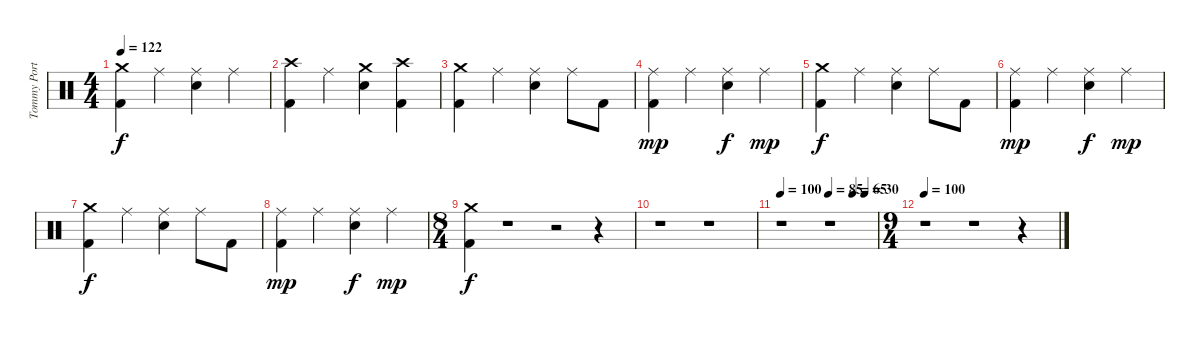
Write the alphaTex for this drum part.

\track ("Tommy Portino" "Tommy Port") {instrument percussion}
\staff {score}
\articulation defaults
\ts (4 4)
\tempo 122
\clef neutral
\ks c
("Crash medium (hit)" "Kick (hit) 2").4{dy f} "Ride (middle)".4 ("Ride (middle)" "Snare (hit) 2").4 "Ride (middle)".4 |
("Crash high (hit)" "Kick (hit) 2").4 "Ride (middle)".4 ("Crash medium (hit)" "Snare (hit) 2").4 ("Crash high (hit)" "Kick (hit) 2").4 |
("Crash medium (hit)" "Kick (hit) 2").4 "Ride (middle)".4 ("Ride (middle)" "Snare (hit) 2").4 "Ride (middle)".8 "Kick (hit) 2".8 |
("Ride (middle)" "Kick (hit) 2").4{dy mp} "Ride (middle)".4 ("Ride (middle)" "Snare (hit) 2").4{dy f} "Ride (middle)".4{dy mp} |
("Crash medium (hit)" "Kick (hit) 2").4{dy f} "Ride (middle)".4 ("Ride (middle)" "Snare (hit) 2").4 "Ride (middle)".8 "Kick (hit) 2".8 |
("Ride (middle)" "Kick (hit) 2").4{dy mp} "Ride (middle)".4 ("Ride (middle)" "Snare (hit) 2").4{dy f} "Ride (middle)".4{dy mp} |
("Crash medium (hit)" "Kick (hit) 2").4{dy f} "Ride (middle)".4 ("Ride (middle)" "Snare (hit) 2").4 "Ride (middle)".8 "Kick (hit) 2".8 |
("Ride (middle)" "Kick (hit) 2").4{dy mp} "Ride (middle)".4 ("Ride (middle)" "Snare (hit) 2").4{dy f} "Ride (middle)".4{dy mp} |
\ts (8 4)
("Crash medium (hit)" "Kick (hit) 2").4{dy f} r.1 r.2 r.4 |
r.1 r.1 |
\tempo 100
\tempo (85 0.5)
\tempo (65 0.75)
\tempo (30 0.875)
r.1 r.1 |
\ts (9 4)
\tempo 100
r.1 r.1 r.4
